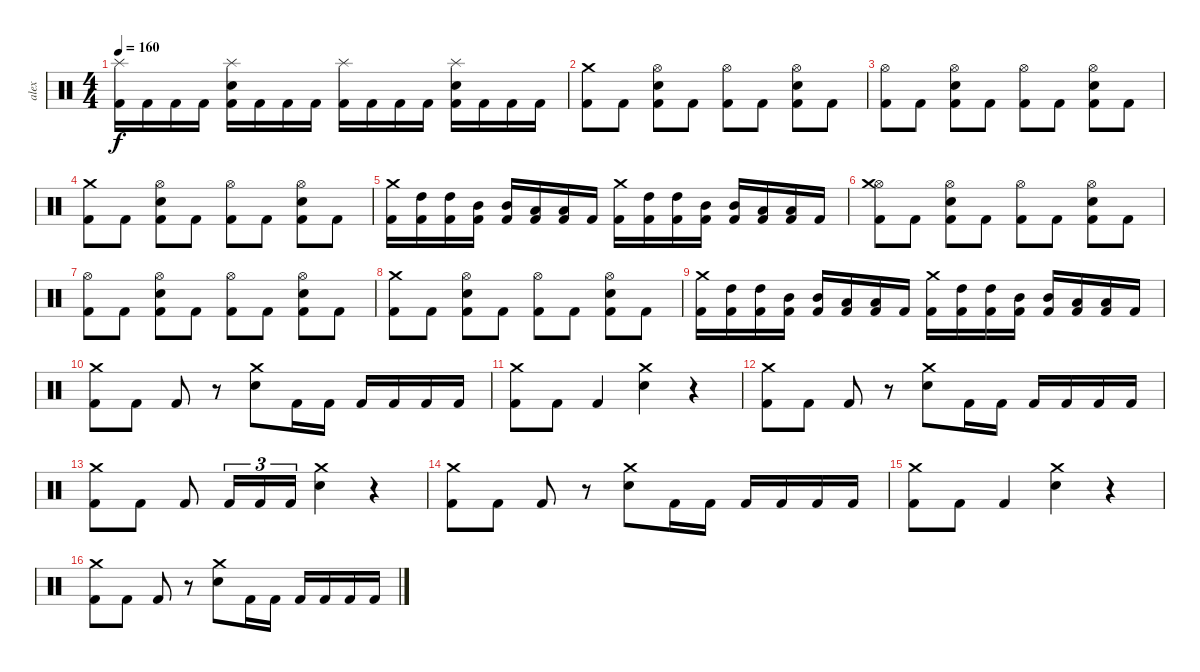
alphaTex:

\track ("alex" "alex") {instrument percussion}
\staff {score}
\articulation defaults
\ts (4 4)
\tempo 160
\clef neutral
\ks c
("Splash (hit)" "Kick (hit) 2").16{dy f} "Kick (hit) 2".16 "Kick (hit) 2".16 "Kick (hit) 2".16 ("Kick (hit) 2" "Electric Snare (hit)" "Splash (hit)").16 "Kick (hit) 2".16 "Kick (hit) 2".16 "Kick (hit) 2".16 ("Kick (hit) 2" "Splash (hit)").16 "Kick (hit) 2".16 "Kick (hit) 2".16 "Kick (hit) 2".16 ("Kick (hit) 2" "Splash (hit)" "Electric Snare (hit)").16 "Kick (hit) 2".16 "Kick (hit) 2".16 "Kick (hit) 2".16 |
("Crash medium (hit)" "Kick (hit) 2").8 "Kick (hit) 2".8 ("Electric Snare (hit)" "Hi-Hat (open)" "Kick (hit) 2").8 "Kick (hit) 2".8 ("Hi-Hat (open)" "Kick (hit) 2").8 "Kick (hit) 2".8 ("Electric Snare (hit)" "Hi-Hat (open)" "Kick (hit) 2").8 "Kick (hit) 2".8 |
("Hi-Hat (open)" "Kick (hit) 2").8 "Kick (hit) 2".8 ("Electric Snare (hit)" "Hi-Hat (open)" "Kick (hit) 2").8 "Kick (hit) 2".8 ("Hi-Hat (open)" "Kick (hit) 2").8 "Kick (hit) 2".8 ("Electric Snare (hit)" "Hi-Hat (open)" "Kick (hit) 2").8 "Kick (hit) 2".8 |
("Crash medium (hit)" "Kick (hit) 2").8 "Kick (hit) 2".8 ("Electric Snare (hit)" "Hi-Hat (open)" "Kick (hit) 2").8 "Kick (hit) 2".8 ("Hi-Hat (open)" "Kick (hit) 2").8 "Kick (hit) 2".8 ("Electric Snare (hit)" "Hi-Hat (open)" "Kick (hit) 2").8 "Kick (hit) 2".8 |
("Crash medium (hit)" "Kick (hit) 2").16 ("High Tom (hit)" "Kick (hit) 2").16 ("High Tom (hit)" "Kick (hit) 2").16 ("Mid Tom (hit)" "Kick (hit) 2").16 ("Mid Tom (hit)" "Kick (hit) 2").16 ("Low Tom (hit)" "Kick (hit) 2").16 ("Low Tom (hit)" "Kick (hit) 2").16 "Kick (hit) 2".16 ("Crash medium (hit)" "Kick (hit) 2").16 ("High Tom (hit)" "Kick (hit) 2").16 ("High Tom (hit)" "Kick (hit) 2").16 ("Mid Tom (hit)" "Kick (hit) 2").16 ("Mid Tom (hit)" "Kick (hit) 2").16 ("Low Tom (hit)" "Kick (hit) 2").16 ("Low Tom (hit)" "Kick (hit) 2").16 "Kick (hit) 2".16 |
("Hi-Hat (open)" "Crash medium (hit)" "Kick (hit) 2").8 "Kick (hit) 2".8 ("Electric Snare (hit)" "Hi-Hat (open)" "Kick (hit) 2").8 "Kick (hit) 2".8 ("Hi-Hat (open)" "Kick (hit) 2").8 "Kick (hit) 2".8 ("Electric Snare (hit)" "Hi-Hat (open)" "Kick (hit) 2").8 "Kick (hit) 2".8 |
("Hi-Hat (open)" "Kick (hit) 2").8 "Kick (hit) 2".8 ("Electric Snare (hit)" "Hi-Hat (open)" "Kick (hit) 2").8 "Kick (hit) 2".8 ("Hi-Hat (open)" "Kick (hit) 2").8 "Kick (hit) 2".8 ("Electric Snare (hit)" "Hi-Hat (open)" "Kick (hit) 2").8 "Kick (hit) 2".8 |
("Crash medium (hit)" "Kick (hit) 2").8 "Kick (hit) 2".8 ("Electric Snare (hit)" "Hi-Hat (open)" "Kick (hit) 2").8 "Kick (hit) 2".8 ("Hi-Hat (open)" "Kick (hit) 2").8 "Kick (hit) 2".8 ("Electric Snare (hit)" "Hi-Hat (open)" "Kick (hit) 2").8 "Kick (hit) 2".8 |
("Crash medium (hit)" "Kick (hit) 2").16 ("High Tom (hit)" "Kick (hit) 2").16 ("High Tom (hit)" "Kick (hit) 2").16 ("Mid Tom (hit)" "Kick (hit) 2").16 ("Mid Tom (hit)" "Kick (hit) 2").16 ("Low Tom (hit)" "Kick (hit) 2").16 ("Low Tom (hit)" "Kick (hit) 2").16 "Kick (hit) 2".16 ("Crash medium (hit)" "Kick (hit) 2").16 ("High Tom (hit)" "Kick (hit) 2").16 ("High Tom (hit)" "Kick (hit) 2").16 ("Mid Tom (hit)" "Kick (hit) 2").16 ("Mid Tom (hit)" "Kick (hit) 2").16 ("Low Tom (hit)" "Kick (hit) 2").16 ("Low Tom (hit)" "Kick (hit) 2").16 "Kick (hit) 2".16 |
("Crash medium (hit)" "Kick (hit) 2").8 "Kick (hit) 2".8 "Kick (hit) 2".8 r.8 ("Electric Snare (hit)" "Crash medium (hit)").8 "Kick (hit) 2".16 "Kick (hit) 2".16 "Kick (hit) 2".16 "Kick (hit) 2".16 "Kick (hit) 2".16 "Kick (hit) 2".16 |
("Crash medium (hit)" "Kick (hit) 2").8 "Kick (hit) 2".8 "Kick (hit) 2".4 ("Crash medium (hit)" "Electric Snare (hit)").4 r.4 |
("Crash medium (hit)" "Kick (hit) 2").8 "Kick (hit) 2".8 "Kick (hit) 2".8 r.8 ("Electric Snare (hit)" "Crash medium (hit)").8 "Kick (hit) 2".16 "Kick (hit) 2".16 "Kick (hit) 2".16 "Kick (hit) 2".16 "Kick (hit) 2".16 "Kick (hit) 2".16 |
("Crash medium (hit)" "Kick (hit) 2").8 "Kick (hit) 2".8 "Kick (hit) 2".8 "Kick (hit) 2".16{tu (3 2)} "Kick (hit) 2".16{tu (3 2)} "Kick (hit) 2".16{tu (3 2)} ("Crash medium (hit)" "Electric Snare (hit)").4 r.4 |
("Crash medium (hit)" "Kick (hit) 2").8 "Kick (hit) 2".8 "Kick (hit) 2".8 r.8 ("Electric Snare (hit)" "Crash medium (hit)").8 "Kick (hit) 2".16 "Kick (hit) 2".16 "Kick (hit) 2".16 "Kick (hit) 2".16 "Kick (hit) 2".16 "Kick (hit) 2".16 |
("Crash medium (hit)" "Kick (hit) 2").8 "Kick (hit) 2".8 "Kick (hit) 2".4 ("Crash medium (hit)" "Electric Snare (hit)").4 r.4 |
("Crash medium (hit)" "Kick (hit) 2").8 "Kick (hit) 2".8 "Kick (hit) 2".8 r.8 ("Electric Snare (hit)" "Crash medium (hit)").8 "Kick (hit) 2".16 "Kick (hit) 2".16 "Kick (hit) 2".16 "Kick (hit) 2".16 "Kick (hit) 2".16 "Kick (hit) 2".16
